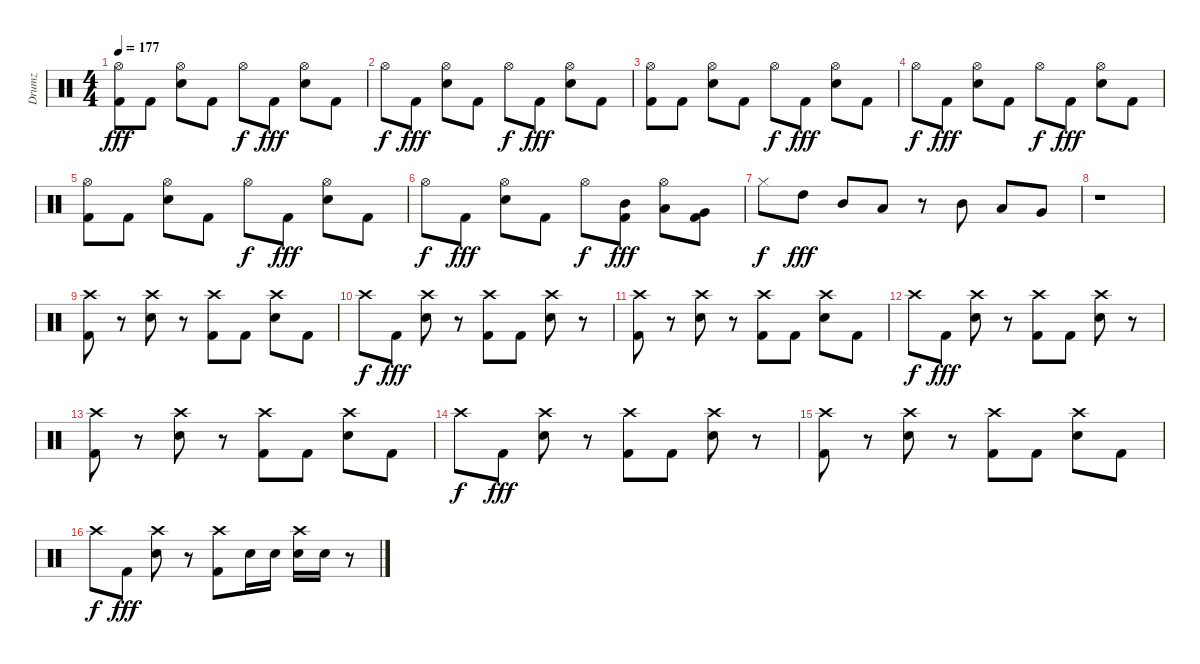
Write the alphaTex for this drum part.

\track ("Drumz" "Drumz") {instrument percussion}
\staff {score}
\articulation defaults
\ts (4 4)
\tempo 177
\clef neutral
\ks c
("Kick (hit) 2" "Hi-Hat (open)").8{dy fff} "Kick (hit) 2".8 ("Snare (hit) 2" "Hi-Hat (open)").8 "Kick (hit) 2".8 "Hi-Hat (open)".8{dy f} "Kick (hit) 2".8{dy fff} ("Snare (hit) 2" "Hi-Hat (open)").8 "Kick (hit) 2".8 |
"Hi-Hat (open)".8{dy f} "Kick (hit) 2".8{dy fff} ("Snare (hit) 2" "Hi-Hat (open)").8 "Kick (hit) 2".8 "Hi-Hat (open)".8{dy f} "Kick (hit) 2".8{dy fff} ("Snare (hit) 2" "Hi-Hat (open)").8 "Kick (hit) 2".8 |
("Kick (hit) 2" "Hi-Hat (open)").8 "Kick (hit) 2".8 ("Snare (hit) 2" "Hi-Hat (open)").8 "Kick (hit) 2".8 "Hi-Hat (open)".8{dy f} "Kick (hit) 2".8{dy fff} ("Snare (hit) 2" "Hi-Hat (open)").8 "Kick (hit) 2".8 |
"Hi-Hat (open)".8{dy f} "Kick (hit) 2".8{dy fff} ("Snare (hit) 2" "Hi-Hat (open)").8 "Kick (hit) 2".8 "Hi-Hat (open)".8{dy f} "Kick (hit) 2".8{dy fff} ("Snare (hit) 2" "Hi-Hat (open)").8 "Kick (hit) 2".8 |
("Kick (hit) 2" "Hi-Hat (open)").8 "Kick (hit) 2".8 ("Snare (hit) 2" "Hi-Hat (open)").8 "Kick (hit) 2".8 "Hi-Hat (open)".8{dy f} "Kick (hit) 2".8{dy fff} ("Snare (hit) 2" "Hi-Hat (open)").8 "Kick (hit) 2".8 |
"Hi-Hat (open)".8{dy f} "Kick (hit) 2".8{dy fff} ("Snare (hit) 2" "Hi-Hat (open)").8 "Kick (hit) 2".8 "Hi-Hat (open)".8{dy f} ("Mid Tom (hit)" "Kick (hit) 2").8{dy fff} ("Low Tom (hit)" "Hi-Hat (open)").8 ("Very Low Tom (hit)" "Kick (hit) 2").8 |
"Hi-Hat (closed)".8{dy f} "High Tom (hit)".8{dy fff} "Mid Tom (hit)".8 "Low Tom (hit)".8 r.8 "Mid Tom (hit)".8 "Low Tom (hit)".8 "Very Low Tom (hit)".8 |
r.1 |
("Crash high (hit)" "Kick (hit) 2").8 r.8 ("Crash high (hit)" "Snare (hit) 2").8 r.8 ("Kick (hit) 2" "Crash high (hit)").8 "Kick (hit) 2".8 ("Crash high (hit)" "Snare (hit) 2").8 "Kick (hit) 2".8 |
"Crash high (hit)".8{dy f} "Kick (hit) 2".8{dy fff} ("Crash high (hit)" "Snare (hit) 2").8 r.8 ("Crash high (hit)" "Kick (hit) 2").8 "Kick (hit) 2".8 ("Crash high (hit)" "Snare (hit) 2").8 r.8 |
("Crash high (hit)" "Kick (hit) 2").8 r.8 ("Crash high (hit)" "Snare (hit) 2").8 r.8 ("Kick (hit) 2" "Crash high (hit)").8 "Kick (hit) 2".8 ("Crash high (hit)" "Snare (hit) 2").8 "Kick (hit) 2".8 |
"Crash high (hit)".8{dy f} "Kick (hit) 2".8{dy fff} ("Crash high (hit)" "Snare (hit) 2").8 r.8 ("Crash high (hit)" "Kick (hit) 2").8 "Kick (hit) 2".8 ("Crash high (hit)" "Snare (hit) 2").8 r.8 |
("Crash high (hit)" "Kick (hit) 2").8 r.8 ("Crash high (hit)" "Snare (hit) 2").8 r.8 ("Kick (hit) 2" "Crash high (hit)").8 "Kick (hit) 2".8 ("Crash high (hit)" "Snare (hit) 2").8 "Kick (hit) 2".8 |
"Crash high (hit)".8{dy f} "Kick (hit) 2".8{dy fff} ("Crash high (hit)" "Snare (hit) 2").8 r.8 ("Crash high (hit)" "Kick (hit) 2").8 "Kick (hit) 2".8 ("Crash high (hit)" "Snare (hit) 2").8 r.8 |
("Crash high (hit)" "Kick (hit) 2").8 r.8 ("Crash high (hit)" "Snare (hit) 2").8 r.8 ("Kick (hit) 2" "Crash high (hit)").8 "Kick (hit) 2".8 ("Crash high (hit)" "Snare (hit) 2").8 "Kick (hit) 2".8 |
"Crash high (hit)".8{dy f} "Kick (hit) 2".8{dy fff} ("Crash high (hit)" "Snare (hit) 2").8 r.8 ("Crash high (hit)" "Kick (hit) 2").8 "Snare (hit) 2".16 "Snare (hit) 2".16 ("Crash high (hit)" "Snare (hit) 2").16 "Snare (hit) 2".16 r.8
